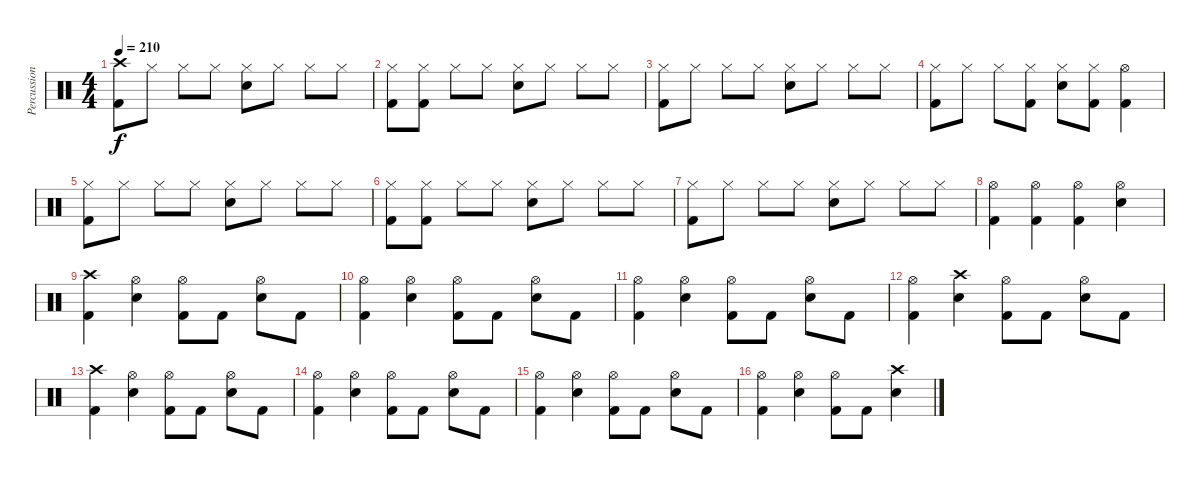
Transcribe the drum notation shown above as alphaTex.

\track ("Percussion" "Percussion") {instrument percussion}
\staff {score}
\articulation defaults
\ts (4 4)
\tempo 210
\clef neutral
\ks c
("Crash high (hit)" "Kick (hit) 2").8{dy f} "Hi-Hat (closed)".8 "Hi-Hat (closed)".8 "Hi-Hat (closed)".8 ("Hi-Hat (closed)" "Electric Snare (hit)").8 "Hi-Hat (closed)".8 "Hi-Hat (closed)".8 "Hi-Hat (closed)".8 |
("Hi-Hat (closed)" "Kick (hit) 2").8 ("Hi-Hat (closed)" "Kick (hit) 2").8 "Hi-Hat (closed)".8 "Hi-Hat (closed)".8 ("Hi-Hat (closed)" "Electric Snare (hit)").8 "Hi-Hat (closed)".8 "Hi-Hat (closed)".8 "Hi-Hat (closed)".8 |
("Hi-Hat (closed)" "Kick (hit) 2").8 "Hi-Hat (closed)".8 "Hi-Hat (closed)".8 "Hi-Hat (closed)".8 ("Hi-Hat (closed)" "Electric Snare (hit)").8 "Hi-Hat (closed)".8 "Hi-Hat (closed)".8 "Hi-Hat (closed)".8 |
("Hi-Hat (closed)" "Kick (hit) 2").8 "Hi-Hat (closed)".8 "Hi-Hat (closed)".8 ("Hi-Hat (closed)" "Kick (hit) 2").8 ("Hi-Hat (closed)" "Electric Snare (hit)").8 ("Hi-Hat (closed)" "Kick (hit) 2").8 ("Hi-Hat (open)" "Kick (hit) 2").4 |
("Hi-Hat (closed)" "Kick (hit) 2").8 "Hi-Hat (closed)".8 "Hi-Hat (closed)".8 "Hi-Hat (closed)".8 ("Hi-Hat (closed)" "Electric Snare (hit)").8 "Hi-Hat (closed)".8 "Hi-Hat (closed)".8 "Hi-Hat (closed)".8 |
("Hi-Hat (closed)" "Kick (hit) 2").8 ("Hi-Hat (closed)" "Kick (hit) 2").8 "Hi-Hat (closed)".8 "Hi-Hat (closed)".8 ("Hi-Hat (closed)" "Electric Snare (hit)").8 "Hi-Hat (closed)".8 "Hi-Hat (closed)".8 "Hi-Hat (closed)".8 |
("Hi-Hat (closed)" "Kick (hit) 2").8 "Hi-Hat (closed)".8 "Hi-Hat (closed)".8 "Hi-Hat (closed)".8 ("Hi-Hat (closed)" "Electric Snare (hit)").8 "Hi-Hat (closed)".8 "Hi-Hat (closed)".8 "Hi-Hat (closed)".8 |
("Hi-Hat (open)" "Kick (hit) 2").4 ("Hi-Hat (open)" "Kick (hit) 2").4 ("Hi-Hat (open)" "Kick (hit) 2").4 ("Hi-Hat (open)" "Electric Snare (hit)").4 |
("Crash high (hit)" "Kick (hit) 2").4 ("Hi-Hat (open)" "Electric Snare (hit)").4 ("Hi-Hat (open)" "Kick (hit) 2").8 "Kick (hit) 2".8 ("Hi-Hat (open)" "Electric Snare (hit)").8 "Kick (hit) 2".8 |
("Hi-Hat (open)" "Kick (hit) 2").4 ("Hi-Hat (open)" "Electric Snare (hit)").4 ("Hi-Hat (open)" "Kick (hit) 2").8 "Kick (hit) 2".8 ("Hi-Hat (open)" "Electric Snare (hit)").8 "Kick (hit) 2".8 |
("Hi-Hat (open)" "Kick (hit) 2").4 ("Hi-Hat (open)" "Electric Snare (hit)").4 ("Hi-Hat (open)" "Kick (hit) 2").8 "Kick (hit) 2".8 ("Hi-Hat (open)" "Electric Snare (hit)").8 "Kick (hit) 2".8 |
("Hi-Hat (open)" "Kick (hit) 2").4 ("Crash high (hit)" "Electric Snare (hit)").4 ("Hi-Hat (open)" "Kick (hit) 2").8 "Kick (hit) 2".8 ("Hi-Hat (open)" "Electric Snare (hit)").8 "Kick (hit) 2".8 |
("Crash high (hit)" "Kick (hit) 2").4 ("Hi-Hat (open)" "Electric Snare (hit)").4 ("Hi-Hat (open)" "Kick (hit) 2").8 "Kick (hit) 2".8 ("Hi-Hat (open)" "Electric Snare (hit)").8 "Kick (hit) 2".8 |
("Hi-Hat (open)" "Kick (hit) 2").4 ("Hi-Hat (open)" "Electric Snare (hit)").4 ("Hi-Hat (open)" "Kick (hit) 2").8 "Kick (hit) 2".8 ("Hi-Hat (open)" "Electric Snare (hit)").8 "Kick (hit) 2".8 |
("Hi-Hat (open)" "Kick (hit) 2").4 ("Hi-Hat (open)" "Electric Snare (hit)").4 ("Hi-Hat (open)" "Kick (hit) 2").8 "Kick (hit) 2".8 ("Hi-Hat (open)" "Electric Snare (hit)").8 "Kick (hit) 2".8 |
("Hi-Hat (open)" "Kick (hit) 2").4 ("Hi-Hat (open)" "Electric Snare (hit)").4 ("Hi-Hat (open)" "Kick (hit) 2").8 "Kick (hit) 2".8 ("Crash high (hit)" "Electric Snare (hit)").4
